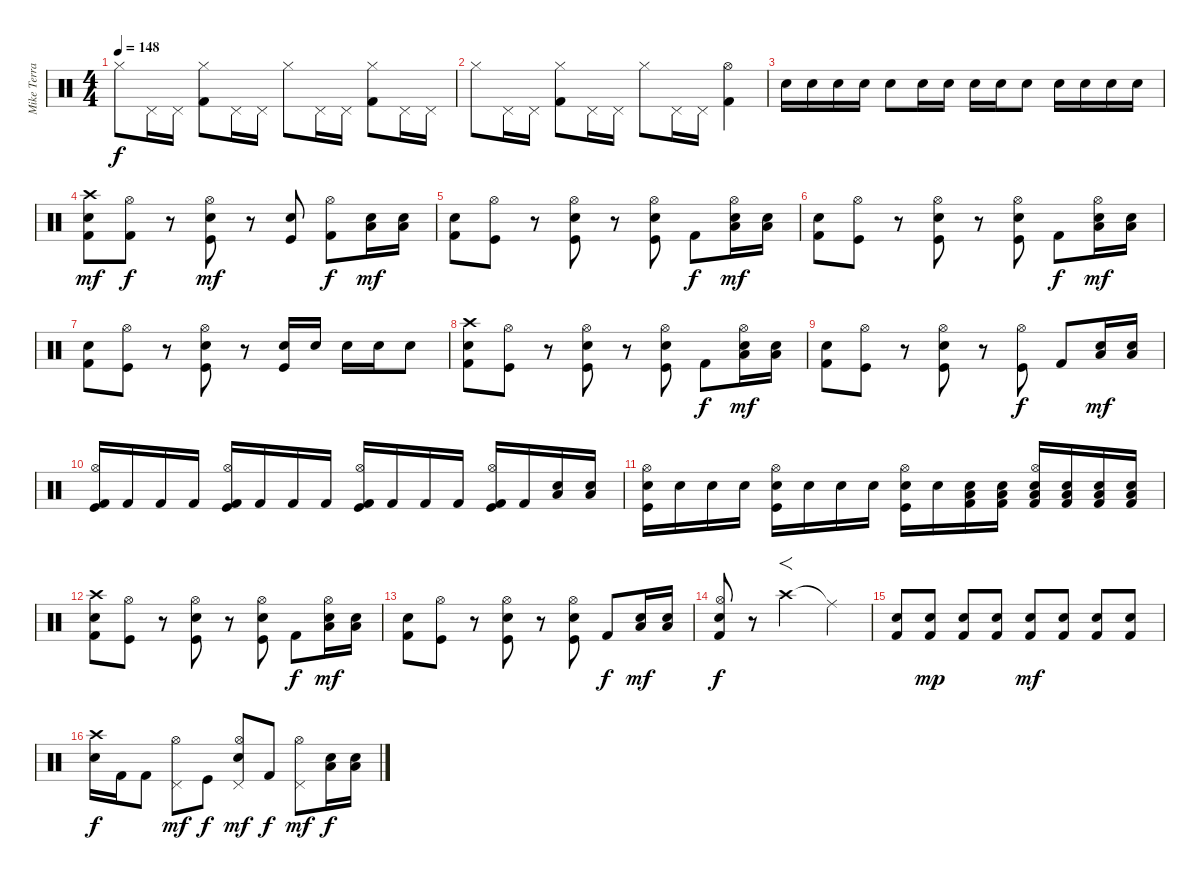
\track ("Mike Terrana" "Mike Terra") {instrument percussion}
\staff {score}
\articulation defaults
\ts (4 4)
\tempo 148
\clef neutral
\ks c "Hi-Hat (closed)".8{dy f} "Pedal Hi-Hat (hit)".16 "Pedal Hi-Hat (hit)".16
("Hi-Hat (closed)" "Kick (hit) 2").8 "Pedal Hi-Hat (hit)".16 "Pedal Hi-Hat (hit)".16 "Hi-Hat (closed)".8 "Pedal Hi-Hat (hit)".16 "Pedal Hi-Hat (hit)".16 ("Hi-Hat (closed)" "Kick (hit) 2").8 "Pedal Hi-Hat (hit)".16 "Pedal Hi-Hat (hit)".16 |
"Hi-Hat (closed)".8 "Pedal Hi-Hat (hit)".16 "Pedal Hi-Hat (hit)".16 ("Hi-Hat (closed)" "Kick (hit) 2").8 "Pedal Hi-Hat (hit)".16 "Pedal Hi-Hat (hit)".16 "Hi-Hat (closed)".8 "Pedal Hi-Hat (hit)".16 "Pedal Hi-Hat (hit)".16 ("Hi-Hat (open)" "Kick (hit) 2").4 |
"Electric Snare (hit)".16 "Electric Snare (hit)".16 "Electric Snare (hit)".16 "Electric Snare (hit)".16 "Electric Snare (hit)".8 "Electric Snare (hit)".16 "Electric Snare (hit)".16 "Electric Snare (hit)".16 "Electric Snare (hit)".16 "Electric Snare (hit)".8 "Electric Snare (hit)".16 "Electric Snare (hit)".16 "Electric Snare (hit)".16 "Electric Snare (hit)".16 |
("Crash high (hit)" "Kick (hit) 2" "Snare (hit) 2").8{dy mf} ("Hi-Hat (open)" "Kick (hit) 2").8{dy f} r.8 ("Hi-Hat (open)" "Kick (hit)" "Snare (hit) 2").8{dy mf} r.8 ("Kick (hit)" "Snare (hit) 2").8 ("Hi-Hat (open)" "Kick (hit) 2").8{dy f} ("Low Floor Tom (hit)" "Snare (hit) 2").16{dy mf} ("Low Floor Tom (hit)" "Snare (hit) 2").16 |
("Kick (hit) 2" "Snare (hit) 2").8 ("Hi-Hat (open)" "Kick (hit)").8 r.8 ("Hi-Hat (open)" "Kick (hit)" "Snare (hit) 2").8 r.8 ("Hi-Hat (open)" "Kick (hit)" "Snare (hit) 2").8 "Kick (hit) 2".8{dy f} ("Hi-Hat (open)" "Low Floor Tom (hit)" "Snare (hit) 2").16{dy mf} ("Low Floor Tom (hit)" "Snare (hit) 2").16 |
("Kick (hit) 2" "Snare (hit) 2").8 ("Hi-Hat (open)" "Kick (hit)").8 r.8 ("Hi-Hat (open)" "Kick (hit)" "Snare (hit) 2").8 r.8 ("Hi-Hat (open)" "Kick (hit)" "Snare (hit) 2").8 "Kick (hit) 2".8{dy f} ("Hi-Hat (open)" "Low Floor Tom (hit)" "Snare (hit) 2").16{dy mf} ("Low Floor Tom (hit)" "Snare (hit) 2").16 |
("Kick (hit) 2" "Snare (hit) 2").8 ("Hi-Hat (open)" "Kick (hit)").8 r.8 ("Hi-Hat (open)" "Kick (hit)" "Snare (hit) 2").8 r.8 ("Kick (hit)" "Snare (hit) 2").16 "Snare (hit) 2".16 "Snare (hit) 2".16 "Snare (hit) 2".16 "Snare (hit) 2".8 |
("Crash high (hit)" "Kick (hit) 2" "Snare (hit) 2").8 ("Hi-Hat (open)" "Kick (hit)").8 r.8 ("Hi-Hat (open)" "Kick (hit)" "Snare (hit) 2").8 r.8 ("Hi-Hat (open)" "Kick (hit)" "Snare (hit) 2").8 "Kick (hit) 2".8{dy f} ("Hi-Hat (open)" "Low Floor Tom (hit)" "Snare (hit) 2").16{dy mf} ("Low Floor Tom (hit)" "Snare (hit) 2").16 |
("Kick (hit) 2" "Snare (hit) 2").8 ("Hi-Hat (open)" "Kick (hit)").8 r.8 ("Hi-Hat (open)" "Kick (hit)" "Snare (hit) 2").8 r.8 ("Hi-Hat (open)" "Kick (hit)").8{dy f} "Kick (hit) 2".8 ("Low Floor Tom (hit)" "Snare (hit) 2").16{dy mf} ("Low Floor Tom (hit)" "Snare (hit) 2").16 |
("Hi-Hat (open)" "Kick (hit)" "Kick (hit) 2").16 "Kick (hit) 2".16 "Kick (hit) 2".16 "Kick (hit) 2".16 ("Hi-Hat (open)" "Kick (hit)" "Kick (hit) 2").16 "Kick (hit) 2".16 "Kick (hit) 2".16 "Kick (hit) 2".16 ("Hi-Hat (open)" "Kick (hit)" "Kick (hit) 2").16 "Kick (hit) 2".16 "Kick (hit) 2".16 "Kick (hit) 2".16 ("Hi-Hat (open)" "Kick (hit)" "Kick (hit) 2").16 "Kick (hit) 2".16 ("Low Floor Tom (hit)" "Snare (hit) 2").16 ("Low Floor Tom (hit)" "Snare (hit) 2").16 |
("Hi-Hat (open)" "Kick (hit)" "Snare (hit) 2").16 "Snare (hit) 2".16 "Snare (hit) 2".16 "Snare (hit) 2".16 ("Hi-Hat (open)" "Kick (hit)" "Snare (hit) 2").16 "Snare (hit) 2".16 "Snare (hit) 2".16 "Snare (hit) 2".16 ("Hi-Hat (open)" "Kick (hit)" "Snare (hit) 2").16 "Snare (hit) 2".16 ("Low Floor Tom (hit)" "Kick (hit) 2" "Snare (hit) 2").16 ("Low Floor Tom (hit)" "Kick (hit) 2" "Snare (hit) 2").16 ("Hi-Hat (open)" "Low Floor Tom (hit)" "Kick (hit) 2" "Snare (hit) 2").16 ("Low Floor Tom (hit)" "Kick (hit) 2" "Snare (hit) 2").16 ("Low Floor Tom (hit)" "Kick (hit) 2" "Snare (hit) 2").16 ("Low Floor Tom (hit)" "Kick (hit) 2" "Snare (hit) 2").16 |
("Crash high (hit)" "Kick (hit) 2" "Snare (hit) 2").8 ("Hi-Hat (open)" "Kick (hit)").8 r.8 ("Hi-Hat (open)" "Kick (hit)" "Snare (hit) 2").8 r.8 ("Hi-Hat (open)" "Kick (hit)" "Snare (hit) 2").8 "Kick (hit) 2".8{dy f} ("Hi-Hat (open)" "Low Floor Tom (hit)" "Snare (hit) 2").16{dy mf} ("Low Floor Tom (hit)" "Snare (hit) 2").16 |
("Kick (hit) 2" "Snare (hit) 2").8 ("Hi-Hat (open)" "Kick (hit)").8 r.8 ("Hi-Hat (open)" "Kick (hit)" "Snare (hit) 2").8 r.8 ("Hi-Hat (open)" "Kick (hit)" "Snare (hit) 2").8 "Kick (hit) 2".8{dy f} ("Low Floor Tom (hit)" "Snare (hit) 2").16{dy mf} ("Low Floor Tom (hit)" "Snare (hit) 2").16 |
("Hi-Hat (open)" "Kick (hit) 2" "Snare (hit) 2").8{dy f} r.8 "Crash high (hit)".2{f} "Ride (middle)"{t}.4 |
("Kick (hit) 2" "Snare (hit) 2").8 ("Kick (hit) 2" "Snare (hit) 2").8{dy mp} ("Kick (hit) 2" "Snare (hit) 2").8 ("Kick (hit) 2" "Snare (hit) 2").8 ("Kick (hit) 2" "Snare (hit) 2").8{dy mf} ("Kick (hit) 2" "Snare (hit) 2").8 ("Kick (hit) 2" "Snare (hit) 2").8 ("Kick (hit) 2" "Snare (hit) 2").8 |
("Crash high (hit)" "Snare (hit) 2").16{dy f} "Kick (hit) 2".16 "Kick (hit) 2".8 ("Pedal Hi-Hat (hit)" "Hi-Hat (open)").8{dy mf} "Kick (hit)".8{dy f} ("Pedal Hi-Hat (hit)" "Hi-Hat (open)" "Electric Snare (hit)").8{dy mf} "Kick (hit) 2".8{dy f} ("Pedal Hi-Hat (hit)" "Hi-Hat (open)").8{dy mf} ("Low Floor Tom (hit)" "Snare (hit) 2").16{dy f} ("Low Floor Tom (hit)" "Snare (hit) 2").16
